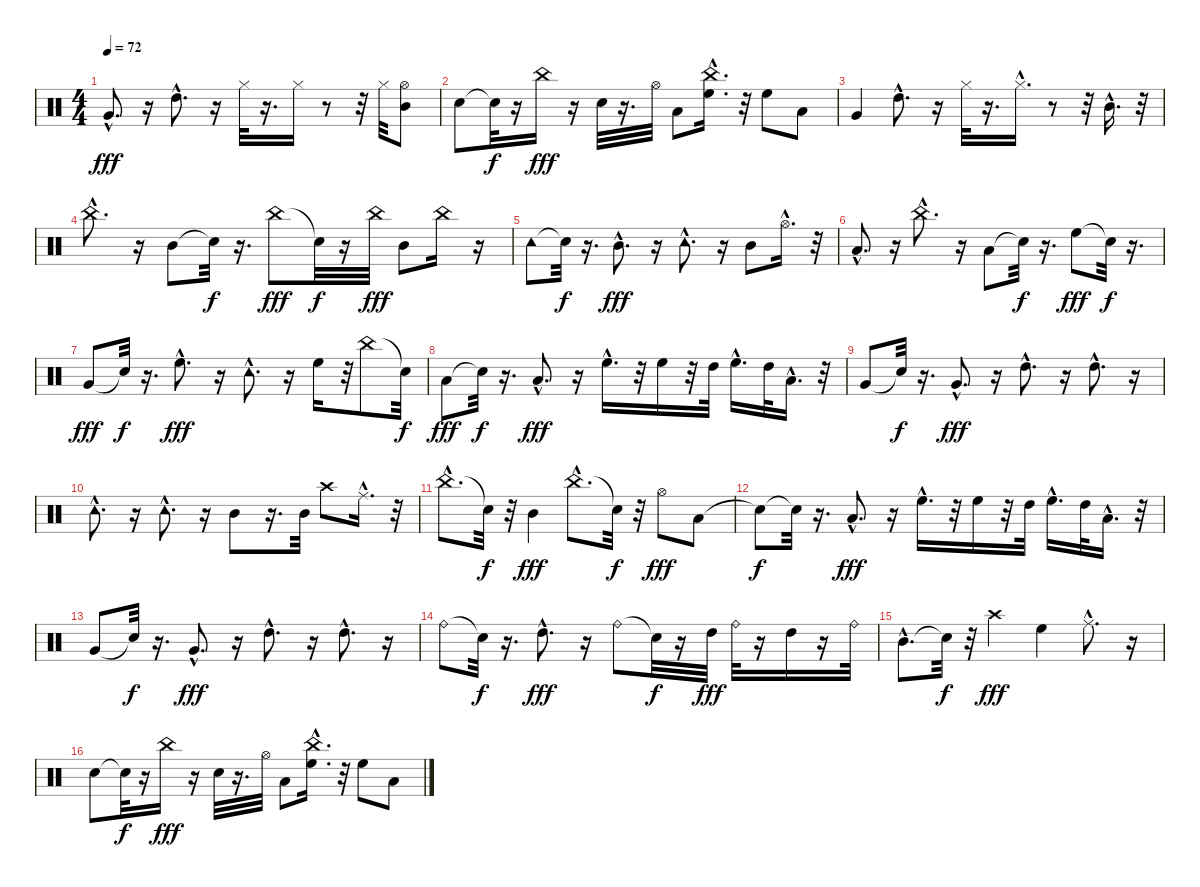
\track "" {instrument percussion}
\staff {score}
\articulation defaults
\ts (4 4)
\tempo 72
\clef neutral
\ks c "Very Low Tom (hit)"{hac}.8{d dy fff}
r.16 "High Tom (hit)"{hac}.8{d} r.16 "Hi-Hat (closed)".32 r.16{d} "Hi-Hat (closed)".16 r.8 r.32 "Hi-Hat (closed)".32 ("Hi-Hat (open)" "Mid Tom (hit)").8 |
"Electric Snare (hit)".8 "Snare (hit)"{t}.32{dy f} r.16 "China (hit)".16{dy fff} r.16 "Electric Snare (hit)".32 r.16{d} "Hi-Hat (open)".32 "Low Tom (hit)".8 ("China (hit)"{hac} "High Floor Tom (hit)").16{d} r.32 "High Floor Tom (hit)".8 "Low Tom (hit)".8 |
"Very Low Tom (hit)".4 "High Tom (hit)"{hac}.8{d} r.16 "Hi-Hat (closed)".32 r.16{d} "Hi-Hat (closed)"{hac}.16{d} r.8 r.32 "Mid Tom (hit)"{hac}.16{d} r.32 |
"China (hit)"{hac}.8{d} r.16 "Mid Tom (hit)".8 "Snare (hit)"{t}.32{dy f} r.16{d} "China (hit)".8{dy fff} "Snare (hit)"{t}.32{dy f} r.16 "China (hit)".32{dy fff} "Mid Tom (hit)".8 "China (hit)".16 r.16 |
"Tambourine (hit)".8 "Snare (hit)"{t}.32{dy f} r.16{d} "Mid Tom (hit)"{hac}.8{d dy fff} r.16 "Tambourine (hit)"{hac}.8{d} r.16 "Mid Tom (hit)".8 "Hi-Hat (open)"{hac}.16{d} r.32 |
"Low Tom (hit)"{hac}.8{d} r.16 "China (hit)"{hac}.8{d} r.16 "Low Tom (hit)".8 "Snare (hit)"{t}.32{dy f} r.16{d} "High Floor Tom (hit)".8{dy fff} "Snare (hit)"{t}.32{dy f} r.16{d} |
"Very Low Tom (hit)".8{dy fff} "Snare (hit)"{t}.32{dy f} r.16{d} "High Floor Tom (hit)"{hac}.8{d dy fff} r.16 "Tambourine (hit)"{hac}.8{d} r.16 "High Floor Tom (hit)".16 r.32 "China (hit)".8 "Snare (hit)"{t}.32{dy f} |
"Low Tom (hit)".8{dy fff} "Snare (hit)"{t}.32{dy f} r.16{d} "Low Tom (hit)"{hac}.8{d dy fff} r.16 "High Floor Tom (hit)"{hac}.16{d} r.32 "High Floor Tom (hit)".16 r.32 "High Tom (hit)".32 "High Floor Tom (hit)"{hac}.16{d} "High Tom (hit)".32 "Low Tom (hit)"{hac}.16{d} r.32 |
"Very Low Tom (hit)".8 "Snare (hit)"{t}.32{dy f} r.16{d} "Very Low Tom (hit)"{hac}.8{d dy fff} r.16 "High Tom (hit)"{hac}.8{d} r.16 "High Tom (hit)"{hac}.8{d} r.16 |
"Tambourine (hit)"{hac}.8{d} r.16 "Tambourine (hit)"{hac}.8{d} r.16 "Mid Tom (hit)".8 r.16{d} "Mid Tom (hit)".32 "Crash high (hit)".8 "Ride (middle)"{hac}.16{d} r.32 |
"China (hit)"{hac}.8{d} "Snare (hit)"{t}.32{dy f} r.32 "Mid Tom (hit)".4{dy fff} "China (hit)"{hac}.8{d} "Snare (hit)"{t}.32{dy f} r.32 "Hi-Hat (open)".8{dy fff} "Low Tom (hit)".8 |
"Snare (hit)"{t}.8{dy f} "Snare (hit)"{t}.32 r.16{d} "Low Tom (hit)"{hac}.8{d dy fff} r.16 "High Floor Tom (hit)"{hac}.16{d} r.32 "High Floor Tom (hit)".16 r.32 "High Tom (hit)".32 "High Floor Tom (hit)"{hac}.16{d} "High Tom (hit)".32 "Low Tom (hit)"{hac}.16{d} r.32 |
"Very Low Tom (hit)".8 "Snare (hit)"{t}.32{dy f} r.16{d} "Very Low Tom (hit)"{hac}.8{d dy fff} r.16 "High Tom (hit)"{hac}.8{d} r.16 "High Tom (hit)"{hac}.8{d} r.16 |
"Ride (bell)".8 "Snare (hit)"{t}.32{dy f} r.16{d} "High Tom (hit)"{hac}.8{d dy fff} r.16 "Ride (bell)".8 "Snare (hit)"{t}.32{dy f} r.16 "High Tom (hit)".32{dy fff} "Ride (bell)".32 r.16 "High Tom (hit)".16 r.16 "Ride (bell)".32 |
"Mid Tom (hit)"{hac}.8{d} "Snare (hit)"{t}.32{dy f} r.32 "Crash high (hit)".4{dy fff} "High Floor Tom (hit)".4 "Ride (middle)"{hac}.8{d} r.16 |
"Electric Snare (hit)".8 "Snare (hit)"{t}.32{dy f} r.16 "China (hit)".16{dy fff} r.16 "Electric Snare (hit)".32 r.16{d} "Hi-Hat (open)".32 "Low Tom (hit)".8 ("China (hit)"{hac} "High Floor Tom (hit)").16{d} r.32 "High Floor Tom (hit)".8 "Low Tom (hit)".8
